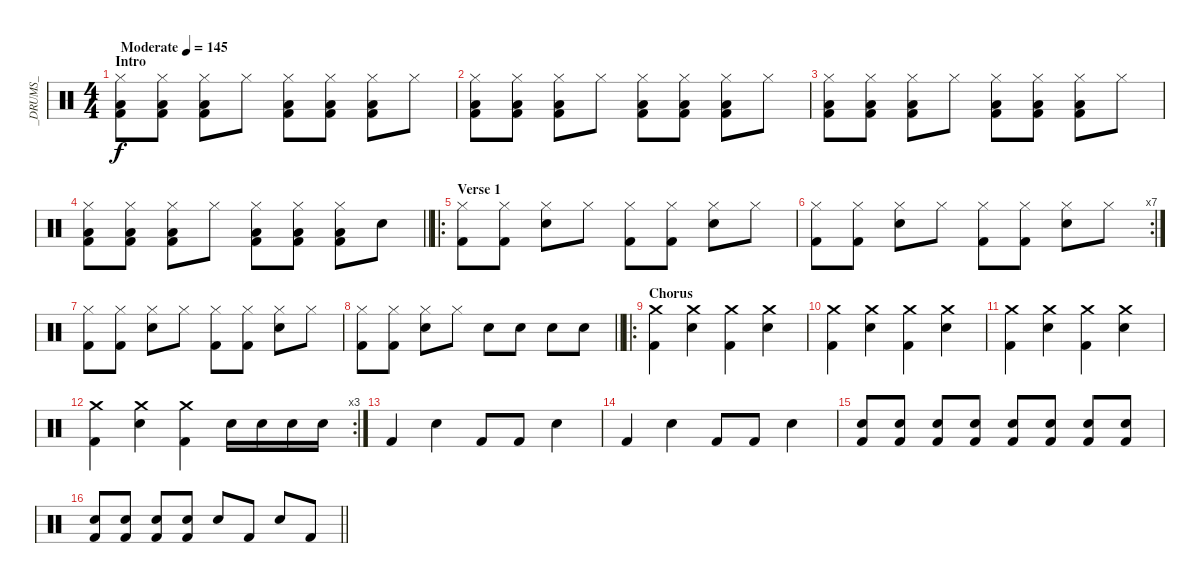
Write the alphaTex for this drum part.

\track ("_DRUMS_" "_DRUMS_") {instrument percussion}
\staff {score}
\articulation defaults
\ts (4 4)
\section ("" "Intro")
\tempo (145 "Moderate")
\clef neutral
\ks c
("Hi-Hat (closed)" "Low Floor Tom (hit)" "Kick (hit) 2").8{dy f} ("Hi-Hat (closed)" "Low Floor Tom (hit)" "Kick (hit) 2").8 ("Hi-Hat (closed)" "Low Floor Tom (hit)" "Kick (hit) 2").8 "Hi-Hat (closed)".8 ("Hi-Hat (closed)" "Low Floor Tom (hit)" "Kick (hit) 2").8 ("Hi-Hat (closed)" "Low Floor Tom (hit)" "Kick (hit) 2").8 ("Hi-Hat (closed)" "Low Floor Tom (hit)" "Kick (hit) 2").8 "Hi-Hat (closed)".8 |
("Hi-Hat (closed)" "Low Floor Tom (hit)" "Kick (hit) 2").8 ("Hi-Hat (closed)" "Low Floor Tom (hit)" "Kick (hit) 2").8 ("Hi-Hat (closed)" "Low Floor Tom (hit)" "Kick (hit) 2").8 "Hi-Hat (closed)".8 ("Hi-Hat (closed)" "Low Floor Tom (hit)" "Kick (hit) 2").8 ("Hi-Hat (closed)" "Low Floor Tom (hit)" "Kick (hit) 2").8 ("Hi-Hat (closed)" "Low Floor Tom (hit)" "Kick (hit) 2").8 "Hi-Hat (closed)".8 |
("Hi-Hat (closed)" "Low Floor Tom (hit)" "Kick (hit) 2").8 ("Hi-Hat (closed)" "Low Floor Tom (hit)" "Kick (hit) 2").8 ("Hi-Hat (closed)" "Low Floor Tom (hit)" "Kick (hit) 2").8 "Hi-Hat (closed)".8 ("Hi-Hat (closed)" "Low Floor Tom (hit)" "Kick (hit) 2").8 ("Hi-Hat (closed)" "Low Floor Tom (hit)" "Kick (hit) 2").8 ("Hi-Hat (closed)" "Low Floor Tom (hit)" "Kick (hit) 2").8 "Hi-Hat (closed)".8 |
\barLineRight lightlight
("Hi-Hat (closed)" "Low Floor Tom (hit)" "Kick (hit) 2").8 ("Hi-Hat (closed)" "Low Floor Tom (hit)" "Kick (hit) 2").8 ("Hi-Hat (closed)" "Low Floor Tom (hit)" "Kick (hit) 2").8 "Hi-Hat (closed)".8 ("Hi-Hat (closed)" "Low Floor Tom (hit)" "Kick (hit) 2").8 ("Hi-Hat (closed)" "Low Floor Tom (hit)" "Kick (hit) 2").8 ("Hi-Hat (closed)" "Low Floor Tom (hit)" "Kick (hit) 2").8 "Electric Snare (hit)".8 |
\ro
\section ("" "Verse 1")
("Hi-Hat (closed)" "Kick (hit) 2").8 ("Hi-Hat (closed)" "Kick (hit) 2").8 ("Hi-Hat (closed)" "Electric Snare (hit)").8 "Hi-Hat (closed)".8 ("Hi-Hat (closed)" "Kick (hit) 2").8 ("Hi-Hat (closed)" "Kick (hit) 2").8 ("Hi-Hat (closed)" "Electric Snare (hit)").8 "Hi-Hat (closed)".8 |
\rc 7
("Hi-Hat (closed)" "Kick (hit) 2").8 ("Hi-Hat (closed)" "Kick (hit) 2").8 ("Hi-Hat (closed)" "Electric Snare (hit)").8 "Hi-Hat (closed)".8 ("Hi-Hat (closed)" "Kick (hit) 2").8 ("Hi-Hat (closed)" "Kick (hit) 2").8 ("Hi-Hat (closed)" "Electric Snare (hit)").8 "Hi-Hat (closed)".8 |
("Hi-Hat (closed)" "Kick (hit) 2").8 ("Hi-Hat (closed)" "Kick (hit) 2").8 ("Hi-Hat (closed)" "Electric Snare (hit)").8 "Hi-Hat (closed)".8 ("Hi-Hat (closed)" "Kick (hit) 2").8 ("Hi-Hat (closed)" "Kick (hit) 2").8 ("Hi-Hat (closed)" "Electric Snare (hit)").8 "Hi-Hat (closed)".8 |
\barLineRight lightlight
("Hi-Hat (closed)" "Kick (hit) 2").8 ("Hi-Hat (closed)" "Kick (hit) 2").8 ("Hi-Hat (closed)" "Electric Snare (hit)").8 "Hi-Hat (closed)".8 "Electric Snare (hit)".8 "Electric Snare (hit)".8 "Electric Snare (hit)".8 "Electric Snare (hit)".8 |
\ro
\section ("" "Chorus")
("Crash medium (hit)" "Kick (hit) 2").4 ("Crash medium (hit)" "Electric Snare (hit)").4 ("Crash medium (hit)" "Kick (hit) 2").4 ("Crash medium (hit)" "Electric Snare (hit)").4 |
("Crash medium (hit)" "Kick (hit) 2").4 ("Crash medium (hit)" "Electric Snare (hit)").4 ("Crash medium (hit)" "Kick (hit) 2").4 ("Crash medium (hit)" "Electric Snare (hit)").4 |
("Crash medium (hit)" "Kick (hit) 2").4 ("Crash medium (hit)" "Electric Snare (hit)").4 ("Crash medium (hit)" "Kick (hit) 2").4 ("Crash medium (hit)" "Electric Snare (hit)").4 |
\rc 3
("Crash medium (hit)" "Kick (hit) 2").4 ("Crash medium (hit)" "Electric Snare (hit)").4 ("Crash medium (hit)" "Kick (hit) 2").4 "Electric Snare (hit)".16 "Electric Snare (hit)".16 "Electric Snare (hit)".16 "Electric Snare (hit)".16 |
"Kick (hit) 2".4 "Electric Snare (hit)".4 "Kick (hit) 2".8 "Kick (hit) 2".8 "Electric Snare (hit)".4 |
"Kick (hit) 2".4 "Electric Snare (hit)".4 "Kick (hit) 2".8 "Kick (hit) 2".8 "Electric Snare (hit)".4 |
("Electric Snare (hit)" "Kick (hit) 2").8 ("Electric Snare (hit)" "Kick (hit) 2").8 ("Electric Snare (hit)" "Kick (hit) 2").8 ("Electric Snare (hit)" "Kick (hit) 2").8 ("Electric Snare (hit)" "Kick (hit) 2").8 ("Electric Snare (hit)" "Kick (hit) 2").8 ("Electric Snare (hit)" "Kick (hit) 2").8 ("Electric Snare (hit)" "Kick (hit) 2").8 |
\barLineRight lightlight
("Electric Snare (hit)" "Kick (hit) 2").8 ("Electric Snare (hit)" "Kick (hit) 2").8 ("Electric Snare (hit)" "Kick (hit) 2").8 ("Electric Snare (hit)" "Kick (hit) 2").8 "Electric Snare (hit)".8 "Kick (hit) 2".8 "Electric Snare (hit)".8 "Kick (hit) 2".8
